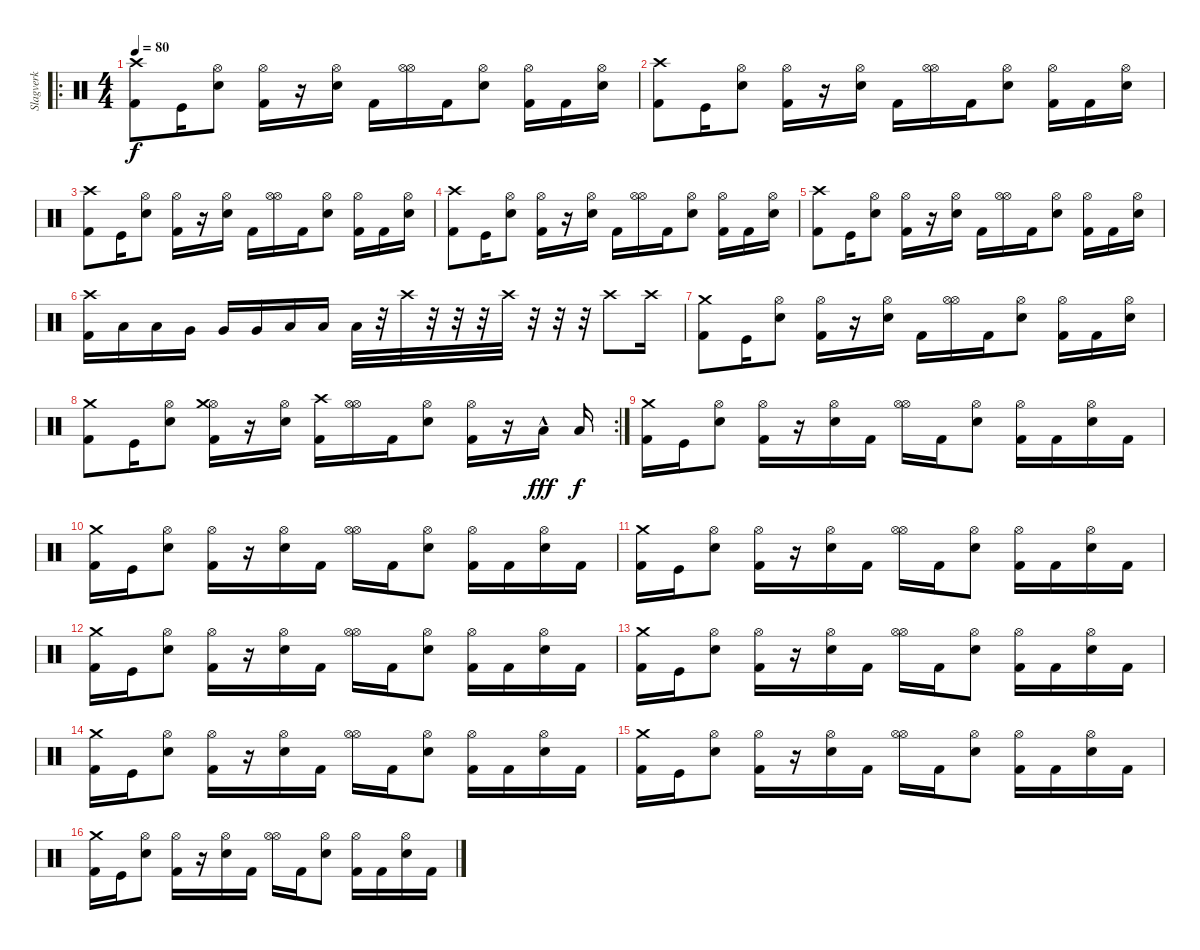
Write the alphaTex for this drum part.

\track ("Slagverk" "Slagverk") {instrument percussion}
\staff
\articulation defaults
\ro
\ts (4 4)
\tempo 80
\clef neutral
\ks c
("Crash high (hit)" "Kick (hit) 2").8{dy f} "Kick (hit)".16 ("Hi-Hat (open)" "Snare (hit) 2").8 ("Hi-Hat (open)" "Kick (hit) 2").16 r.16 ("Hi-Hat (open)" "Snare (hit) 2").16 "Kick (hit) 2".16 ("Hi-Hat (open)" "Hi-Hat (open)").16 "Kick (hit) 2".16 ("Hi-Hat (open)" "Snare (hit) 2").8 ("Hi-Hat (open)" "Kick (hit) 2").16 "Kick (hit) 2".16 ("Hi-Hat (open)" "Snare (hit) 2").16 |
("Crash high (hit)" "Kick (hit) 2").8 "Kick (hit)".16 ("Hi-Hat (open)" "Snare (hit) 2").8 ("Hi-Hat (open)" "Kick (hit) 2").16 r.16 ("Hi-Hat (open)" "Snare (hit) 2").16 "Kick (hit) 2".16 ("Hi-Hat (open)" "Hi-Hat (open)").16 "Kick (hit) 2".16 ("Hi-Hat (open)" "Snare (hit) 2").8 ("Hi-Hat (open)" "Kick (hit) 2").16 "Kick (hit) 2".16 ("Hi-Hat (open)" "Snare (hit) 2").16 |
("Crash high (hit)" "Kick (hit) 2").8 "Kick (hit)".16 ("Hi-Hat (open)" "Snare (hit) 2").8 ("Hi-Hat (open)" "Kick (hit) 2").16 r.16 ("Hi-Hat (open)" "Snare (hit) 2").16 "Kick (hit) 2".16 ("Hi-Hat (open)" "Hi-Hat (open)").16 "Kick (hit) 2".16 ("Hi-Hat (open)" "Snare (hit) 2").8 ("Hi-Hat (open)" "Kick (hit) 2").16 "Kick (hit) 2".16 ("Hi-Hat (open)" "Snare (hit) 2").16 |
("Crash high (hit)" "Kick (hit) 2").8 "Kick (hit)".16 ("Hi-Hat (open)" "Snare (hit) 2").8 ("Hi-Hat (open)" "Kick (hit) 2").16 r.16 ("Hi-Hat (open)" "Snare (hit) 2").16 "Kick (hit) 2".16 ("Hi-Hat (open)" "Hi-Hat (open)").16 "Kick (hit) 2".16 ("Hi-Hat (open)" "Snare (hit) 2").8 ("Hi-Hat (open)" "Kick (hit) 2").16 "Kick (hit) 2".16 ("Hi-Hat (open)" "Snare (hit) 2").16 |
("Crash high (hit)" "Kick (hit) 2").8 "Kick (hit)".16 ("Hi-Hat (open)" "Snare (hit) 2").8 ("Hi-Hat (open)" "Kick (hit) 2").16 r.16 ("Hi-Hat (open)" "Snare (hit) 2").16 "Kick (hit) 2".16 ("Hi-Hat (open)" "Hi-Hat (open)").16 "Kick (hit) 2".16 ("Hi-Hat (open)" "Snare (hit) 2").8 ("Hi-Hat (open)" "Kick (hit) 2").16 "Kick (hit) 2".16 ("Hi-Hat (open)" "Snare (hit) 2").16 |
("Crash high (hit)" "Kick (hit) 2").16 "Low Tom (hit)".16 "Low Tom (hit)".16 "Very Low Tom (hit)".16 "Very Low Tom (hit)".16 "Very Low Tom (hit)".16 "Low Floor Tom (hit)".16 "Low Floor Tom (hit)".16 "Low Floor Tom (hit)".32 r.32 "Crash high (hit)".32 r.32 r.32 r.32 "Crash high (hit)".32 r.32 r.32 r.32 "Crash high (hit)".8 "Crash high (hit)".16 |
("Crash medium (hit)" "Kick (hit) 2").8 "Kick (hit)".16 ("Hi-Hat (open)" "Snare (hit) 2").8 ("Hi-Hat (open)" "Kick (hit) 2").16 r.16 ("Hi-Hat (open)" "Snare (hit) 2").16 "Kick (hit) 2".16 ("Hi-Hat (open)" "Hi-Hat (open)").16 "Kick (hit) 2".16 ("Hi-Hat (open)" "Snare (hit) 2").8 ("Hi-Hat (open)" "Kick (hit) 2").16 "Kick (hit) 2".16 ("Hi-Hat (open)" "Snare (hit) 2").16 |
\rc 2
("Crash medium (hit)" "Kick (hit) 2").8 "Kick (hit)".16 ("Hi-Hat (open)" "Snare (hit) 2").8 ("Hi-Hat (open)" "Kick (hit) 2" "Crash medium (hit)").16 r.16 ("Hi-Hat (open)" "Snare (hit) 2").16 ("Kick (hit) 2" "Crash high (hit)").16 ("Hi-Hat (open)" "Hi-Hat (open)").16 "Kick (hit) 2".16 ("Hi-Hat (open)" "Snare (hit) 2").8 ("Hi-Hat (open)" "Kick (hit) 2").16 r.16 "Low Floor Tom (hit)"{hac}.16{dy fff} "Low Floor Tom (hit)".16{dy f} |
("Crash medium (hit)" "Kick (hit) 2").16 "Kick (hit)".16 ("Hi-Hat (open)" "Snare (hit) 2").8 ("Hi-Hat (open)" "Kick (hit) 2").16 r.16 ("Hi-Hat (open)" "Snare (hit) 2").16 "Kick (hit) 2".16 ("Hi-Hat (open)" "Hi-Hat (open)").16 "Kick (hit) 2".16 ("Hi-Hat (open)" "Snare (hit) 2").8 ("Hi-Hat (open)" "Kick (hit) 2").16 "Kick (hit) 2".16 ("Hi-Hat (open)" "Snare (hit) 2").16 "Kick (hit) 2".16 |
("Crash medium (hit)" "Kick (hit) 2").16 "Kick (hit)".16 ("Hi-Hat (open)" "Snare (hit) 2").8 ("Hi-Hat (open)" "Kick (hit) 2").16 r.16 ("Hi-Hat (open)" "Snare (hit) 2").16 "Kick (hit) 2".16 ("Hi-Hat (open)" "Hi-Hat (open)").16 "Kick (hit) 2".16 ("Hi-Hat (open)" "Snare (hit) 2").8 ("Hi-Hat (open)" "Kick (hit) 2").16 "Kick (hit) 2".16 ("Hi-Hat (open)" "Snare (hit) 2").16 "Kick (hit) 2".16 |
("Crash medium (hit)" "Kick (hit) 2").16 "Kick (hit)".16 ("Hi-Hat (open)" "Snare (hit) 2").8 ("Hi-Hat (open)" "Kick (hit) 2").16 r.16 ("Hi-Hat (open)" "Snare (hit) 2").16 "Kick (hit) 2".16 ("Hi-Hat (open)" "Hi-Hat (open)").16 "Kick (hit) 2".16 ("Hi-Hat (open)" "Snare (hit) 2").8 ("Hi-Hat (open)" "Kick (hit) 2").16 "Kick (hit) 2".16 ("Hi-Hat (open)" "Snare (hit) 2").16 "Kick (hit) 2".16 |
("Crash medium (hit)" "Kick (hit) 2").16 "Kick (hit)".16 ("Hi-Hat (open)" "Snare (hit) 2").8 ("Hi-Hat (open)" "Kick (hit) 2").16 r.16 ("Hi-Hat (open)" "Snare (hit) 2").16 "Kick (hit) 2".16 ("Hi-Hat (open)" "Hi-Hat (open)").16 "Kick (hit) 2".16 ("Hi-Hat (open)" "Snare (hit) 2").8 ("Hi-Hat (open)" "Kick (hit) 2").16 "Kick (hit) 2".16 ("Hi-Hat (open)" "Snare (hit) 2").16 "Kick (hit) 2".16 |
("Crash medium (hit)" "Kick (hit) 2").16 "Kick (hit)".16 ("Hi-Hat (open)" "Snare (hit) 2").8 ("Hi-Hat (open)" "Kick (hit) 2").16 r.16 ("Hi-Hat (open)" "Snare (hit) 2").16 "Kick (hit) 2".16 ("Hi-Hat (open)" "Hi-Hat (open)").16 "Kick (hit) 2".16 ("Hi-Hat (open)" "Snare (hit) 2").8 ("Hi-Hat (open)" "Kick (hit) 2").16 "Kick (hit) 2".16 ("Hi-Hat (open)" "Snare (hit) 2").16 "Kick (hit) 2".16 |
("Crash medium (hit)" "Kick (hit) 2").16 "Kick (hit)".16 ("Hi-Hat (open)" "Snare (hit) 2").8 ("Hi-Hat (open)" "Kick (hit) 2").16 r.16 ("Hi-Hat (open)" "Snare (hit) 2").16 "Kick (hit) 2".16 ("Hi-Hat (open)" "Hi-Hat (open)").16 "Kick (hit) 2".16 ("Hi-Hat (open)" "Snare (hit) 2").8 ("Hi-Hat (open)" "Kick (hit) 2").16 "Kick (hit) 2".16 ("Hi-Hat (open)" "Snare (hit) 2").16 "Kick (hit) 2".16 |
("Crash medium (hit)" "Kick (hit) 2").16 "Kick (hit)".16 ("Hi-Hat (open)" "Snare (hit) 2").8 ("Hi-Hat (open)" "Kick (hit) 2").16 r.16 ("Hi-Hat (open)" "Snare (hit) 2").16 "Kick (hit) 2".16 ("Hi-Hat (open)" "Hi-Hat (open)").16 "Kick (hit) 2".16 ("Hi-Hat (open)" "Snare (hit) 2").8 ("Hi-Hat (open)" "Kick (hit) 2").16 "Kick (hit) 2".16 ("Hi-Hat (open)" "Snare (hit) 2").16 "Kick (hit) 2".16 |
("Crash medium (hit)" "Kick (hit) 2").16 "Kick (hit)".16 ("Hi-Hat (open)" "Snare (hit) 2").8 ("Hi-Hat (open)" "Kick (hit) 2").16 r.16 ("Hi-Hat (open)" "Snare (hit) 2").16 "Kick (hit) 2".16 ("Hi-Hat (open)" "Hi-Hat (open)").16 "Kick (hit) 2".16 ("Hi-Hat (open)" "Snare (hit) 2").8 ("Hi-Hat (open)" "Kick (hit) 2").16 "Kick (hit) 2".16 ("Hi-Hat (open)" "Snare (hit) 2").16 "Kick (hit) 2".16
